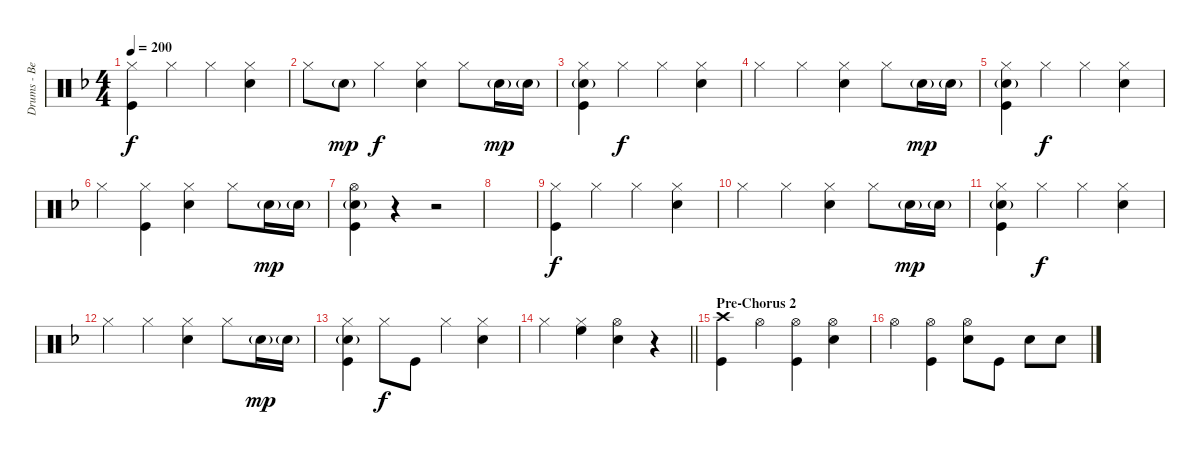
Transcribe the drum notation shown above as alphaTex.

\track ("Drums - Ben Johnston" "Drums - Be") {instrument percussion}
\staff {score}
\articulation defaults
\ts (4 4)
\tempo 200
\clef neutral
\ks f
("Hi-Hat (closed)" "Kick (hit)").4{dy f} "Hi-Hat (closed)".4 "Hi-Hat (closed)".4 ("Hi-Hat (closed)" "Snare (hit) 2").4 |
"Hi-Hat (closed)".8 "Snare (hit) 2"{g}.8{dy mp} "Hi-Hat (closed)".4{dy f} ("Hi-Hat (closed)" "Snare (hit) 2").4 "Hi-Hat (closed)".8 "Snare (hit) 2"{g}.16{dy mp} "Snare (hit) 2"{g}.16 |
("Hi-Hat (closed)" "Snare (hit) 2"{g} "Kick (hit)").4 "Hi-Hat (closed)".4{dy f} "Hi-Hat (closed)".4 ("Hi-Hat (closed)" "Snare (hit) 2").4 |
"Hi-Hat (closed)".4 "Hi-Hat (closed)".4 ("Hi-Hat (closed)" "Snare (hit) 2").4 "Hi-Hat (closed)".8 "Snare (hit) 2"{g}.16{dy mp} "Snare (hit) 2"{g}.16 |
("Hi-Hat (closed)" "Snare (hit) 2"{g} "Kick (hit)").4 "Hi-Hat (closed)".4{dy f} "Hi-Hat (closed)".4 ("Hi-Hat (closed)" "Snare (hit) 2").4 |
"Hi-Hat (closed)".4 ("Hi-Hat (closed)" "Kick (hit)").4 ("Hi-Hat (closed)" "Snare (hit) 2").4 "Hi-Hat (closed)".8 "Snare (hit) 2"{g}.16{dy mp} "Snare (hit) 2"{g}.16 |
("Hi-Hat (open)" "Snare (hit) 2"{g} "Kick (hit)").4 r.4 r.2 |
|
("Hi-Hat (closed)" "Kick (hit)").4{dy f} "Hi-Hat (closed)".4 "Hi-Hat (closed)".4 ("Hi-Hat (closed)" "Snare (hit) 2").4 |
"Hi-Hat (closed)".4 "Hi-Hat (closed)".4 ("Hi-Hat (closed)" "Snare (hit) 2").4 "Hi-Hat (closed)".8 "Snare (hit) 2"{g}.16{dy mp} "Snare (hit) 2"{g}.16 |
("Hi-Hat (closed)" "Snare (hit) 2"{g} "Kick (hit)").4 "Hi-Hat (closed)".4{dy f} "Hi-Hat (closed)".4 ("Hi-Hat (closed)" "Snare (hit) 2").4 |
"Hi-Hat (closed)".4 "Hi-Hat (closed)".4 ("Hi-Hat (closed)" "Snare (hit) 2").4 "Hi-Hat (closed)".8 "Snare (hit) 2"{g}.16{dy mp} "Snare (hit) 2"{g}.16 |
("Hi-Hat (closed)" "Snare (hit) 2"{g} "Kick (hit)").4 "Hi-Hat (closed)".8{dy f} "Kick (hit)".8 "Hi-Hat (closed)".4 ("Hi-Hat (closed)" "Snare (hit) 2").4 |
\barLineRight lightlight "Hi-Hat (closed)".4
("Hi-Hat (closed)" "High Floor Tom (hit)").4 ("Hi-Hat (open)" "Snare (hit) 2").4 r.4 |
\section ("" "Pre-Chorus 2")
("Crash high (hit)" "Kick (hit)").4 "Hi-Hat (open)".4 ("Hi-Hat (open)" "Kick (hit)").4 ("Hi-Hat (open)" "Snare (hit) 2").4 |
"Hi-Hat (open)".4 ("Hi-Hat (open)" "Kick (hit)").4 ("Hi-Hat (open)" "Snare (hit) 2").8 "Kick (hit)".8 "Snare (hit) 2".8 "Snare (hit) 2".8
